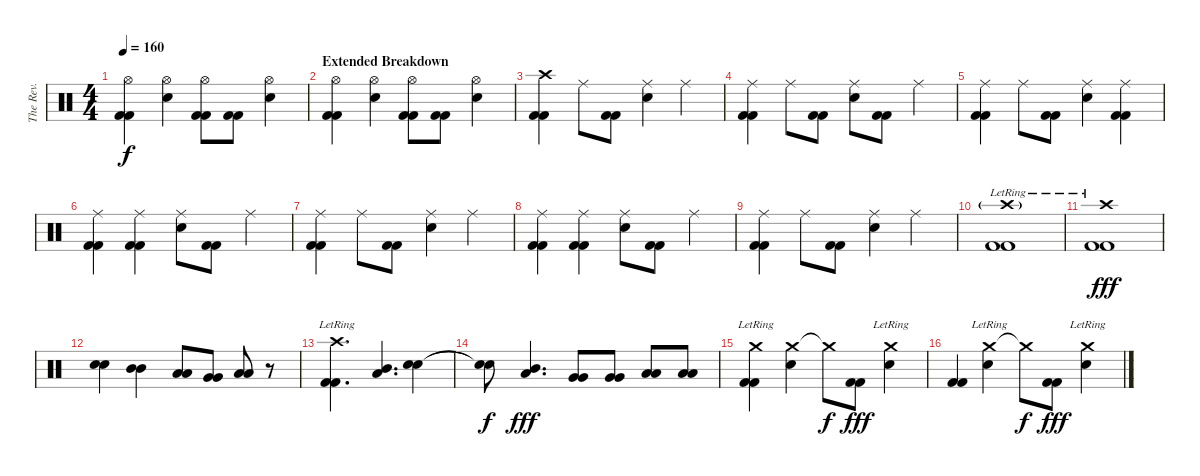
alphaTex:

\track ("The Rev." "The Rev.") {instrument percussion}
\staff {score}
\articulation defaults
\ts (4 4)
\tempo 160
\clef neutral
\ks c
("Hi-Hat (open)" "Kick (hit) 2" "Kick (hit) 2").4{dy f} ("Hi-Hat (open)" "Electric Snare (hit)").4 ("Hi-Hat (open)" "Kick (hit) 2" "Kick (hit) 2").8 ("Kick (hit) 2" "Kick (hit) 2").8 ("Hi-Hat (open)" "Electric Snare (hit)").4 |
\section ("" "Extended Breakdown ")
("Hi-Hat (open)" "Kick (hit) 2" "Kick (hit) 2").4 ("Hi-Hat (open)" "Electric Snare (hit)").4 ("Hi-Hat (open)" "Kick (hit) 2" "Kick (hit) 2").8 ("Kick (hit) 2" "Kick (hit) 2").8 ("Hi-Hat (open)" "Electric Snare (hit)").4 |
("Crash high (hit)" "Kick (hit) 2" "Kick (hit) 2").4 "Ride (middle)".8 ("Kick (hit) 2" "Kick (hit) 2").8 ("Ride (middle)" "Electric Snare (hit)").4 "Ride (middle)".4 |
("Ride (middle)" "Kick (hit) 2" "Kick (hit) 2").4 "Ride (middle)".8 ("Kick (hit) 2" "Kick (hit) 2").8 ("Ride (middle)" "Electric Snare (hit)").8 ("Kick (hit) 2" "Kick (hit) 2").8 "Ride (middle)".4 |
("Ride (middle)" "Kick (hit) 2" "Kick (hit) 2").4 "Ride (middle)".8 ("Kick (hit) 2" "Kick (hit) 2").8 ("Ride (middle)" "Electric Snare (hit)").4 ("Ride (middle)" "Kick (hit) 2" "Kick (hit) 2").4 |
("Ride (middle)" "Kick (hit) 2" "Kick (hit) 2").4 ("Ride (middle)" "Kick (hit) 2" "Kick (hit) 2").4 ("Ride (middle)" "Electric Snare (hit)").8 ("Kick (hit) 2" "Kick (hit) 2").8 "Ride (middle)".4 |
("Ride (middle)" "Kick (hit) 2" "Kick (hit) 2").4 "Ride (middle)".8 ("Kick (hit) 2" "Kick (hit) 2").8 ("Ride (middle)" "Electric Snare (hit)").4 "Ride (middle)".4 |
("Ride (middle)" "Kick (hit) 2" "Kick (hit) 2").4 ("Ride (middle)" "Kick (hit) 2" "Kick (hit) 2").4 ("Ride (middle)" "Electric Snare (hit)").8 ("Kick (hit) 2" "Kick (hit) 2").8 "Ride (middle)".4 |
("Ride (middle)" "Kick (hit) 2" "Kick (hit) 2").4 "Ride (middle)".8 ("Kick (hit) 2" "Kick (hit) 2").8 ("Ride (middle)" "Electric Snare (hit)").4 "Ride (middle)".4 |
("Crash high (hit)"{g} "Kick (hit) 2" "Kick (hit) 2"{lr}).1 |
("Crash high (hit)"{lr} "Kick (hit) 2" "Kick (hit) 2").1{dy fff} |
("Electric Snare (hit)" "Electric Snare (hit)").4 ("Mid Tom (hit)" "Mid Tom (hit)").4 ("Low Tom (hit)" "Low Tom (hit)").8 ("Very Low Tom (hit)" "Very Low Tom (hit)").8 ("Low Floor Tom (hit)" "Low Floor Tom (hit)").8 r.8 |
("Crash high (hit)"{lr} "Kick (hit) 2" "Kick (hit) 2").4{d} ("Mid Tom (hit)" "Low Tom (hit)").4{d} ("Electric Snare (hit)" "Electric Snare (hit)").4 |
("Electric Snare (hit)"{t} "Electric Snare (hit)"{t}).8{dy f} ("Mid Tom (hit)" "Low Tom (hit)").4{d dy fff} ("Very Low Tom (hit)" "Very Low Tom (hit)").8 ("Very Low Tom (hit)" "Very Low Tom (hit)").8 ("Low Floor Tom (hit)" "Low Floor Tom (hit)").8 ("Low Floor Tom (hit)" "Low Floor Tom (hit)").8 |
("Crash medium (hit)"{lr} "Kick (hit) 2" "Kick (hit) 2").4 ("Crash medium (hit)" "Electric Snare (hit)").4 "Crash medium (hit)"{t}.8{dy f} ("Kick (hit) 2" "Kick (hit) 2").8{dy fff} ("Crash medium (hit)"{lr} "Electric Snare (hit)").4 |
("Kick (hit) 2" "Kick (hit) 2").4 ("Crash medium (hit)"{lr} "Electric Snare (hit)").4 "Crash medium (hit)"{t}.8{dy f} ("Kick (hit) 2" "Kick (hit) 2").8{dy fff} ("Crash medium (hit)"{lr} "Electric Snare (hit)").4
